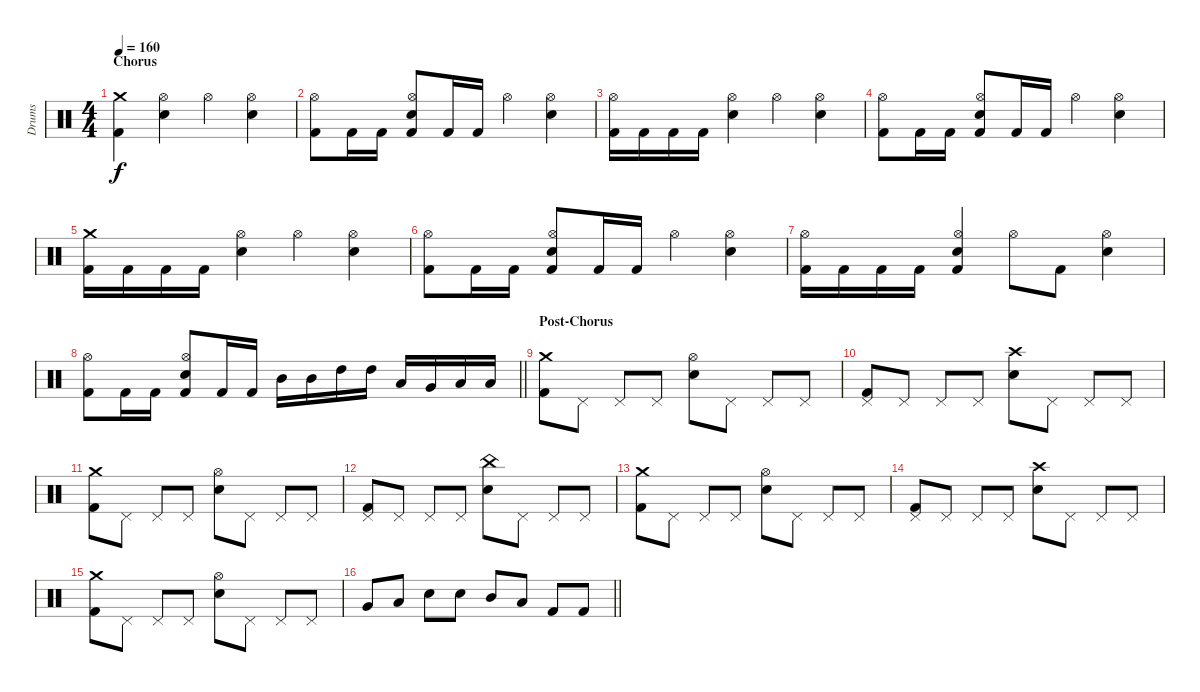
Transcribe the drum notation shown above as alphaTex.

\track ("Drums" "Drums") {instrument percussion}
\staff {score}
\articulation defaults
\ts (4 4)
\section ("" "Chorus")
\tempo 160
\clef neutral
\ks aminor
("Crash medium (hit)" "Kick (hit) 2").4{dy f} ("Hi-Hat (open)" "Electric Snare (hit)").4 "Hi-Hat (open)".4 ("Hi-Hat (open)" "Electric Snare (hit)").4 |
("Hi-Hat (open)" "Kick (hit) 2").8 "Kick (hit) 2".16 "Kick (hit) 2".16 ("Hi-Hat (open)" "Electric Snare (hit)" "Kick (hit) 2").8 "Kick (hit) 2".16 "Kick (hit) 2".16 "Hi-Hat (open)".4 ("Hi-Hat (open)" "Electric Snare (hit)").4 |
("Hi-Hat (open)" "Kick (hit) 2").16 "Kick (hit) 2".16 "Kick (hit) 2".16 "Kick (hit) 2".16 ("Hi-Hat (open)" "Electric Snare (hit)").4 "Hi-Hat (open)".4 ("Hi-Hat (open)" "Electric Snare (hit)").4 |
("Hi-Hat (open)" "Kick (hit) 2").8 "Kick (hit) 2".16 "Kick (hit) 2".16 ("Hi-Hat (open)" "Electric Snare (hit)" "Kick (hit) 2").8 "Kick (hit) 2".16 "Kick (hit) 2".16 "Hi-Hat (open)".4 ("Hi-Hat (open)" "Electric Snare (hit)").4 |
("Crash medium (hit)" "Kick (hit) 2").16 "Kick (hit) 2".16 "Kick (hit) 2".16 "Kick (hit) 2".16 ("Hi-Hat (open)" "Electric Snare (hit)").4 "Hi-Hat (open)".4 ("Hi-Hat (open)" "Electric Snare (hit)").4 |
("Hi-Hat (open)" "Kick (hit) 2").8 "Kick (hit) 2".16 "Kick (hit) 2".16 ("Hi-Hat (open)" "Electric Snare (hit)" "Kick (hit) 2").8 "Kick (hit) 2".16 "Kick (hit) 2".16 "Hi-Hat (open)".4 ("Hi-Hat (open)" "Electric Snare (hit)").4 |
("Hi-Hat (open)" "Kick (hit) 2").16 "Kick (hit) 2".16 "Kick (hit) 2".16 "Kick (hit) 2".16 ("Hi-Hat (open)" "Electric Snare (hit)" "Kick (hit) 2").4 "Hi-Hat (open)".8 "Kick (hit) 2".8 ("Hi-Hat (open)" "Electric Snare (hit)").4 |
\barLineRight lightlight
("Hi-Hat (open)" "Kick (hit) 2").8 "Kick (hit) 2".16 "Kick (hit) 2".16 ("Hi-Hat (open)" "Electric Snare (hit)" "Kick (hit) 2").8 "Kick (hit) 2".16 "Kick (hit) 2".16 "Mid Tom (hit)".16 "Mid Tom (hit)".16 "High Tom (hit)".16 "High Tom (hit)".16 "Low Tom (hit)".16 "Very Low Tom (hit)".16 "Low Tom (hit)".16 "Low Tom (hit)".16 |
\section ("" "Post-Chorus")
("Crash medium (hit)" "Kick (hit) 2").8 "Pedal Hi-Hat (hit)".8 "Pedal Hi-Hat (hit)".8 "Pedal Hi-Hat (hit)".8 ("Hi-Hat (open)" "Electric Snare (hit)").8 "Pedal Hi-Hat (hit)".8 "Pedal Hi-Hat (hit)".8 "Pedal Hi-Hat (hit)".8 |
("Pedal Hi-Hat (hit)" "Kick (hit) 2").8 "Pedal Hi-Hat (hit)".8 "Pedal Hi-Hat (hit)".8 "Pedal Hi-Hat (hit)".8 ("Crash high (hit)" "Electric Snare (hit)").8 "Pedal Hi-Hat (hit)".8 "Pedal Hi-Hat (hit)".8 "Pedal Hi-Hat (hit)".8 |
("Crash medium (hit)" "Kick (hit) 2").8 "Pedal Hi-Hat (hit)".8 "Pedal Hi-Hat (hit)".8 "Pedal Hi-Hat (hit)".8 ("Hi-Hat (open)" "Electric Snare (hit)").8 "Pedal Hi-Hat (hit)".8 "Pedal Hi-Hat (hit)".8 "Pedal Hi-Hat (hit)".8 |
("Pedal Hi-Hat (hit)" "Kick (hit) 2").8 "Pedal Hi-Hat (hit)".8 "Pedal Hi-Hat (hit)".8 "Pedal Hi-Hat (hit)".8 ("China (hit)" "Electric Snare (hit)").8 "Pedal Hi-Hat (hit)".8 "Pedal Hi-Hat (hit)".8 "Pedal Hi-Hat (hit)".8 |
("Crash medium (hit)" "Kick (hit) 2").8 "Pedal Hi-Hat (hit)".8 "Pedal Hi-Hat (hit)".8 "Pedal Hi-Hat (hit)".8 ("Hi-Hat (open)" "Electric Snare (hit)").8 "Pedal Hi-Hat (hit)".8 "Pedal Hi-Hat (hit)".8 "Pedal Hi-Hat (hit)".8 |
("Pedal Hi-Hat (hit)" "Kick (hit) 2").8 "Pedal Hi-Hat (hit)".8 "Pedal Hi-Hat (hit)".8 "Pedal Hi-Hat (hit)".8 ("Crash high (hit)" "Electric Snare (hit)").8 "Pedal Hi-Hat (hit)".8 "Pedal Hi-Hat (hit)".8 "Pedal Hi-Hat (hit)".8 |
("Crash medium (hit)" "Kick (hit) 2").8 "Pedal Hi-Hat (hit)".8 "Pedal Hi-Hat (hit)".8 "Pedal Hi-Hat (hit)".8 ("Hi-Hat (open)" "Electric Snare (hit)").8 "Pedal Hi-Hat (hit)".8 "Pedal Hi-Hat (hit)".8 "Pedal Hi-Hat (hit)".8 |
\barLineRight lightlight "Very Low Tom (hit)".8 "Low Floor Tom (hit)".8 "Electric Snare (hit)".8 "Electric Snare (hit)".8 "Mid Tom (hit)".8 "Low Tom (hit)".8 "Kick (hit) 2".8 "Kick (hit) 2".8
